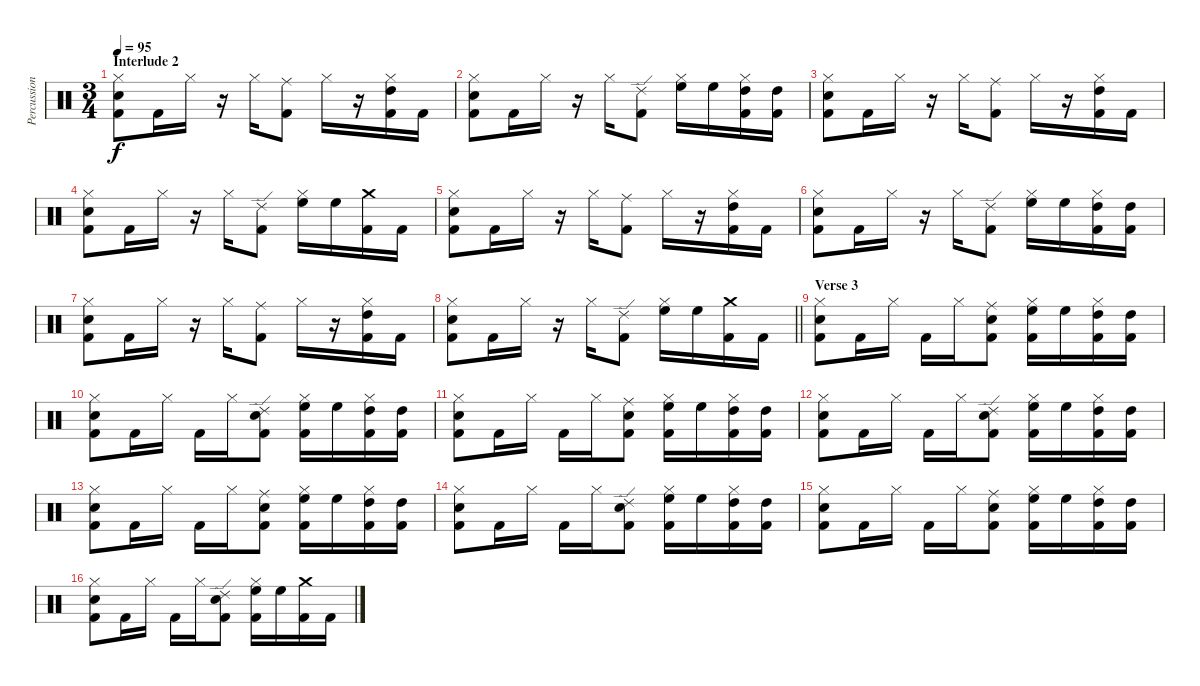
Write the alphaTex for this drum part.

\track ("Percussion" "Percussion") {instrument percussion}
\staff {score}
\articulation defaults
\ts (3 4)
\section ("" "Interlude 2")
\tempo 95
\clef neutral
\ks c
("Hi-Hat (closed)" "Snare (hit) 2" "Kick (hit) 2").8{dy f} "Kick (hit) 2".16 "Hi-Hat (closed)".16 r.16 "Hi-Hat (closed)".16 ("Ride (middle)" "Kick (hit) 2").8 "Hi-Hat (closed)".16 r.16 ("Hi-Hat (closed)" "High Tom (hit)" "Kick (hit) 2").16 "Kick (hit) 2".16 |
("Hi-Hat (closed)" "Snare (hit) 2" "Kick (hit) 2").8 "Kick (hit) 2".16 "Hi-Hat (closed)".16 r.16 "Hi-Hat (closed)".16 ("Ride (edge) 2" "Kick (hit) 2").8 ("Hi-Hat (closed)" "High Floor Tom (hit)").16 "High Floor Tom (hit)".16 ("Hi-Hat (closed)" "High Tom (hit)" "Kick (hit) 2").16 ("High Tom (hit)" "Kick (hit) 2").16 |
("Hi-Hat (closed)" "Snare (hit) 2" "Kick (hit) 2").8 "Kick (hit) 2".16 "Hi-Hat (closed)".16 r.16 "Hi-Hat (closed)".16 ("Ride (middle)" "Kick (hit) 2").8 "Hi-Hat (closed)".16 r.16 ("Hi-Hat (closed)" "High Tom (hit)" "Kick (hit) 2").16 "Kick (hit) 2".16 |
("Hi-Hat (closed)" "Snare (hit) 2" "Kick (hit) 2").8 "Kick (hit) 2".16 "Hi-Hat (closed)".16 r.16 "Hi-Hat (closed)".16 ("Ride (edge) 2" "Kick (hit) 2").8 ("Hi-Hat (closed)" "High Floor Tom (hit)").16 "High Floor Tom (hit)".16 ("Crash medium (hit)" "Kick (hit) 2").16 "Kick (hit) 2".16 |
("Hi-Hat (closed)" "Snare (hit) 2" "Kick (hit) 2").8 "Kick (hit) 2".16 "Hi-Hat (closed)".16 r.16 "Hi-Hat (closed)".16 ("Ride (middle)" "Kick (hit) 2").8 "Hi-Hat (closed)".16 r.16 ("Hi-Hat (closed)" "High Tom (hit)" "Kick (hit) 2").16 "Kick (hit) 2".16 |
("Hi-Hat (closed)" "Snare (hit) 2" "Kick (hit) 2").8 "Kick (hit) 2".16 "Hi-Hat (closed)".16 r.16 "Hi-Hat (closed)".16 ("Ride (edge) 2" "Kick (hit) 2").8 ("Hi-Hat (closed)" "High Floor Tom (hit)").16 "High Floor Tom (hit)".16 ("Hi-Hat (closed)" "High Tom (hit)" "Kick (hit) 2").16 ("High Tom (hit)" "Kick (hit) 2").16 |
("Hi-Hat (closed)" "Snare (hit) 2" "Kick (hit) 2").8 "Kick (hit) 2".16 "Hi-Hat (closed)".16 r.16 "Hi-Hat (closed)".16 ("Ride (middle)" "Kick (hit) 2").8 "Hi-Hat (closed)".16 r.16 ("Hi-Hat (closed)" "High Tom (hit)" "Kick (hit) 2").16 "Kick (hit) 2".16 |
\barLineRight lightlight
("Hi-Hat (closed)" "Snare (hit) 2" "Kick (hit) 2").8 "Kick (hit) 2".16 "Hi-Hat (closed)".16 r.16 "Hi-Hat (closed)".16 ("Ride (edge) 2" "Kick (hit) 2").8 ("Hi-Hat (closed)" "High Floor Tom (hit)").16 "High Floor Tom (hit)".16 ("Crash medium (hit)" "Kick (hit) 2").16 "Kick (hit) 2".16 |
\section ("" "Verse 3")
("Hi-Hat (closed)" "Snare (hit) 2" "Kick (hit) 2").8 "Kick (hit) 2".16 "Hi-Hat (closed)".16 "Kick (hit) 2".16 "Hi-Hat (closed)".16 ("Ride (middle)" "Snare (hit) 2" "Kick (hit) 2").8 ("Hi-Hat (closed)" "High Floor Tom (hit)" "Kick (hit) 2").16 "High Floor Tom (hit)".16 ("Hi-Hat (closed)" "High Tom (hit)" "Kick (hit) 2").16 ("High Tom (hit)" "Kick (hit) 2").16 |
("Hi-Hat (closed)" "Snare (hit) 2" "Kick (hit) 2").8 "Kick (hit) 2".16 "Hi-Hat (closed)".16 "Kick (hit) 2".16 "Hi-Hat (closed)".16 ("Ride (edge) 2" "Snare (hit) 2" "Kick (hit) 2").8 ("Hi-Hat (closed)" "High Floor Tom (hit)" "Kick (hit) 2").16 "High Floor Tom (hit)".16 ("Hi-Hat (closed)" "High Tom (hit)" "Kick (hit) 2").16 ("High Tom (hit)" "Kick (hit) 2").16 |
("Hi-Hat (closed)" "Snare (hit) 2" "Kick (hit) 2").8 "Kick (hit) 2".16 "Hi-Hat (closed)".16 "Kick (hit) 2".16 "Hi-Hat (closed)".16 ("Ride (middle)" "Snare (hit) 2" "Kick (hit) 2").8 ("Hi-Hat (closed)" "High Floor Tom (hit)" "Kick (hit) 2").16 "High Floor Tom (hit)".16 ("Hi-Hat (closed)" "High Tom (hit)" "Kick (hit) 2").16 ("High Tom (hit)" "Kick (hit) 2").16 |
("Hi-Hat (closed)" "Snare (hit) 2" "Kick (hit) 2").8 "Kick (hit) 2".16 "Hi-Hat (closed)".16 "Kick (hit) 2".16 "Hi-Hat (closed)".16 ("Ride (edge) 2" "Snare (hit) 2" "Kick (hit) 2").8 ("Hi-Hat (closed)" "High Floor Tom (hit)" "Kick (hit) 2").16 "High Floor Tom (hit)".16 ("Hi-Hat (closed)" "High Tom (hit)" "Kick (hit) 2").16 ("High Tom (hit)" "Kick (hit) 2").16 |
("Hi-Hat (closed)" "Snare (hit) 2" "Kick (hit) 2").8 "Kick (hit) 2".16 "Hi-Hat (closed)".16 "Kick (hit) 2".16 "Hi-Hat (closed)".16 ("Ride (middle)" "Snare (hit) 2" "Kick (hit) 2").8 ("Hi-Hat (closed)" "High Floor Tom (hit)" "Kick (hit) 2").16 "High Floor Tom (hit)".16 ("Hi-Hat (closed)" "High Tom (hit)" "Kick (hit) 2").16 ("High Tom (hit)" "Kick (hit) 2").16 |
("Hi-Hat (closed)" "Snare (hit) 2" "Kick (hit) 2").8 "Kick (hit) 2".16 "Hi-Hat (closed)".16 "Kick (hit) 2".16 "Hi-Hat (closed)".16 ("Ride (edge) 2" "Snare (hit) 2" "Kick (hit) 2").8 ("Hi-Hat (closed)" "High Floor Tom (hit)" "Kick (hit) 2").16 "High Floor Tom (hit)".16 ("Hi-Hat (closed)" "High Tom (hit)" "Kick (hit) 2").16 ("High Tom (hit)" "Kick (hit) 2").16 |
("Hi-Hat (closed)" "Snare (hit) 2" "Kick (hit) 2").8 "Kick (hit) 2".16 "Hi-Hat (closed)".16 "Kick (hit) 2".16 "Hi-Hat (closed)".16 ("Ride (middle)" "Snare (hit) 2" "Kick (hit) 2").8 ("Hi-Hat (closed)" "High Floor Tom (hit)" "Kick (hit) 2").16 "High Floor Tom (hit)".16 ("Hi-Hat (closed)" "High Tom (hit)" "Kick (hit) 2").16 ("High Tom (hit)" "Kick (hit) 2").16 |
("Hi-Hat (closed)" "Snare (hit) 2" "Kick (hit) 2").8 "Kick (hit) 2".16 "Hi-Hat (closed)".16 "Kick (hit) 2".16 "Hi-Hat (closed)".16 ("Ride (edge) 2" "Snare (hit) 2" "Kick (hit) 2").8 ("Hi-Hat (closed)" "High Floor Tom (hit)" "Kick (hit) 2").16 "High Floor Tom (hit)".16 ("Crash medium (hit)" "Kick (hit) 2").16 "Kick (hit) 2".16
